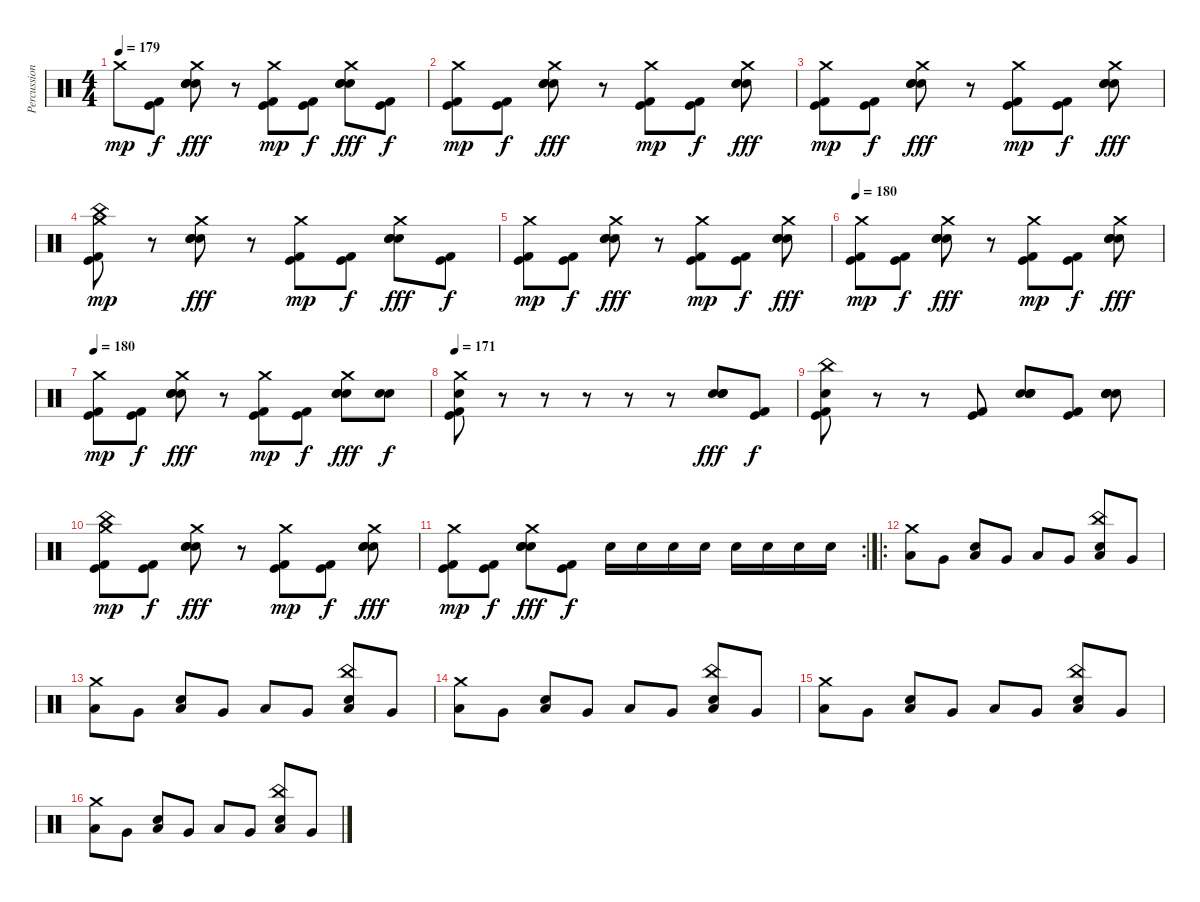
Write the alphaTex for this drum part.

\track ("Percussion" "Percussion") {instrument percussion}
\staff {score}
\articulation defaults
\ts (4 4)
\tempo 179
\clef neutral
\ks c "Crash medium (hit)".8{dy mp}
("Kick (hit)" "Kick (hit) 2").8{dy f} ("Crash medium (hit)" "Electric Snare (hit)" "Electric Snare (hit)" "Electric Snare (hit)").8{dy fff} r.8 ("Crash medium (hit)" "Kick (hit)" "Kick (hit) 2").8{dy mp} ("Kick (hit)" "Kick (hit) 2").8{dy f} ("Crash medium (hit)" "Electric Snare (hit)" "Electric Snare (hit)" "Electric Snare (hit)").8{dy fff} ("Kick (hit)" "Kick (hit) 2").8{dy f} |
("Crash medium (hit)" "Kick (hit)" "Kick (hit) 2").8{dy mp} ("Kick (hit)" "Kick (hit) 2").8{dy f} ("Crash medium (hit)" "Electric Snare (hit)" "Electric Snare (hit)" "Electric Snare (hit)").8{dy fff} r.8 ("Crash medium (hit)" "Kick (hit)" "Kick (hit) 2").8{dy mp} ("Kick (hit)" "Kick (hit) 2").8{dy f} ("Crash medium (hit)" "Electric Snare (hit)" "Electric Snare (hit)" "Electric Snare (hit)").8{dy fff} |
("Crash medium (hit)" "Kick (hit)" "Kick (hit) 2").8{dy mp} ("Kick (hit)" "Kick (hit) 2").8{dy f} ("Crash medium (hit)" "Electric Snare (hit)" "Electric Snare (hit)" "Electric Snare (hit)").8{dy fff} r.8 ("Crash medium (hit)" "Kick (hit)" "Kick (hit) 2").8{dy mp} ("Kick (hit)" "Kick (hit) 2").8{dy f} ("Crash medium (hit)" "Electric Snare (hit)" "Electric Snare (hit)" "Electric Snare (hit)").8{dy fff} |
("China (hit)" "Crash medium (hit)" "Kick (hit)" "Kick (hit) 2").8{dy mp} r.8 ("Crash medium (hit)" "Electric Snare (hit)" "Electric Snare (hit)" "Electric Snare (hit)").8{dy fff} r.8 ("Crash medium (hit)" "Kick (hit)" "Kick (hit) 2").8{dy mp} ("Kick (hit)" "Kick (hit) 2").8{dy f} ("Crash medium (hit)" "Electric Snare (hit)" "Electric Snare (hit)" "Electric Snare (hit)").8{dy fff} ("Kick (hit)" "Kick (hit) 2").8{dy f} |
("Crash medium (hit)" "Kick (hit)" "Kick (hit) 2").8{dy mp} ("Kick (hit)" "Kick (hit) 2").8{dy f} ("Crash medium (hit)" "Electric Snare (hit)" "Electric Snare (hit)" "Electric Snare (hit)").8{dy fff} r.8 ("Crash medium (hit)" "Kick (hit)" "Kick (hit) 2").8{dy mp} ("Kick (hit)" "Kick (hit) 2").8{dy f} ("Crash medium (hit)" "Electric Snare (hit)" "Electric Snare (hit)" "Electric Snare (hit)").8{dy fff} |
\tempo 180
("Crash medium (hit)" "Kick (hit)" "Kick (hit) 2").8{dy mp} ("Kick (hit)" "Kick (hit) 2").8{dy f} ("Crash medium (hit)" "Electric Snare (hit)" "Electric Snare (hit)" "Electric Snare (hit)").8{dy fff} r.8 ("Crash medium (hit)" "Kick (hit)" "Kick (hit) 2").8{dy mp} ("Kick (hit)" "Kick (hit) 2").8{dy f} ("Crash medium (hit)" "Electric Snare (hit)" "Electric Snare (hit)" "Electric Snare (hit)").8{dy fff} |
\tempo 180
("Crash medium (hit)" "Kick (hit)" "Kick (hit) 2").8{dy mp} ("Kick (hit)" "Kick (hit) 2").8{dy f} ("Crash medium (hit)" "Electric Snare (hit)" "Electric Snare (hit)" "Electric Snare (hit)").8{dy fff} r.8 ("Crash medium (hit)" "Kick (hit)" "Kick (hit) 2").8{dy mp} ("Kick (hit)" "Kick (hit) 2").8{dy f} ("Crash medium (hit)" "Electric Snare (hit)" "Electric Snare (hit)" "Electric Snare (hit)").8{dy fff} ("Electric Snare (hit)" "Electric Snare (hit)").8{dy f} |
\tempo 171
("Crash medium (hit)" "Kick (hit)" "Electric Snare (hit)" "Kick (hit) 2").8 r.8 r.8 r.8 r.8 r.8 ("Electric Snare (hit)" "Electric Snare (hit)" "Electric Snare (hit)").8{dy fff} ("Kick (hit)" "Kick (hit) 2").8{dy f} |
("China (hit)" "Electric Snare (hit)" "Kick (hit)" "Kick (hit) 2").8 r.8 r.8 ("Kick (hit)" "Kick (hit) 2").8 ("Electric Snare (hit)" "Electric Snare (hit)" "Electric Snare (hit)" "Electric Snare (hit)").8 ("Kick (hit)" "Kick (hit) 2").8 ("Electric Snare (hit)" "Electric Snare (hit)" "Electric Snare (hit)" "Electric Snare (hit)").8 |
("China (hit)" "Crash medium (hit)" "Kick (hit)" "Kick (hit) 2").8{dy mp} ("Kick (hit)" "Kick (hit) 2").8{dy f} ("Crash medium (hit)" "Electric Snare (hit)" "Electric Snare (hit)" "Electric Snare (hit)").8{dy fff} r.8 ("Crash medium (hit)" "Kick (hit)" "Kick (hit) 2").8{dy mp} ("Kick (hit)" "Kick (hit) 2").8{dy f} ("Crash medium (hit)" "Electric Snare (hit)" "Electric Snare (hit)" "Electric Snare (hit)").8{dy fff} |
\rc 2
("Crash medium (hit)" "Kick (hit)" "Kick (hit) 2").8{dy mp} ("Kick (hit)" "Kick (hit) 2").8{dy f} ("Crash medium (hit)" "Electric Snare (hit)" "Electric Snare (hit)" "Electric Snare (hit)").8{dy fff} ("Kick (hit)" "Kick (hit) 2").8{dy f} "Electric Snare (hit)".16 "Electric Snare (hit)".16 "Electric Snare (hit)".16 "Electric Snare (hit)".16 "Electric Snare (hit)".16 "Electric Snare (hit)".16 "Electric Snare (hit)".16 "Electric Snare (hit)".16 |
\ro
("Crash medium (hit)" "Low Tom (hit)").8 "Very Low Tom (hit)".8 ("Electric Snare (hit)" "Low Floor Tom (hit)").8 "Very Low Tom (hit)".8 "Low Tom (hit)".8 "Very Low Tom (hit)".8 ("China (hit)" "Electric Snare (hit)" "Low Floor Tom (hit)").8 "Very Low Tom (hit)".8 |
("Crash medium (hit)" "Low Tom (hit)").8 "Very Low Tom (hit)".8 ("Electric Snare (hit)" "Low Floor Tom (hit)").8 "Very Low Tom (hit)".8 "Low Tom (hit)".8 "Very Low Tom (hit)".8 ("China (hit)" "Electric Snare (hit)" "Low Floor Tom (hit)").8 "Very Low Tom (hit)".8 |
("Crash medium (hit)" "Low Tom (hit)").8 "Very Low Tom (hit)".8 ("Electric Snare (hit)" "Low Floor Tom (hit)").8 "Very Low Tom (hit)".8 "Low Tom (hit)".8 "Very Low Tom (hit)".8 ("China (hit)" "Electric Snare (hit)" "Low Floor Tom (hit)").8 "Very Low Tom (hit)".8 |
("Crash medium (hit)" "Low Tom (hit)").8 "Very Low Tom (hit)".8 ("Electric Snare (hit)" "Low Floor Tom (hit)").8 "Very Low Tom (hit)".8 "Low Tom (hit)".8 "Very Low Tom (hit)".8 ("China (hit)" "Electric Snare (hit)" "Low Floor Tom (hit)").8 "Very Low Tom (hit)".8 |
("Crash medium (hit)" "Low Tom (hit)").8 "Very Low Tom (hit)".8 ("Electric Snare (hit)" "Low Floor Tom (hit)").8 "Very Low Tom (hit)".8 "Low Tom (hit)".8 "Very Low Tom (hit)".8 ("China (hit)" "Electric Snare (hit)" "Low Floor Tom (hit)").8 "Very Low Tom (hit)".8
